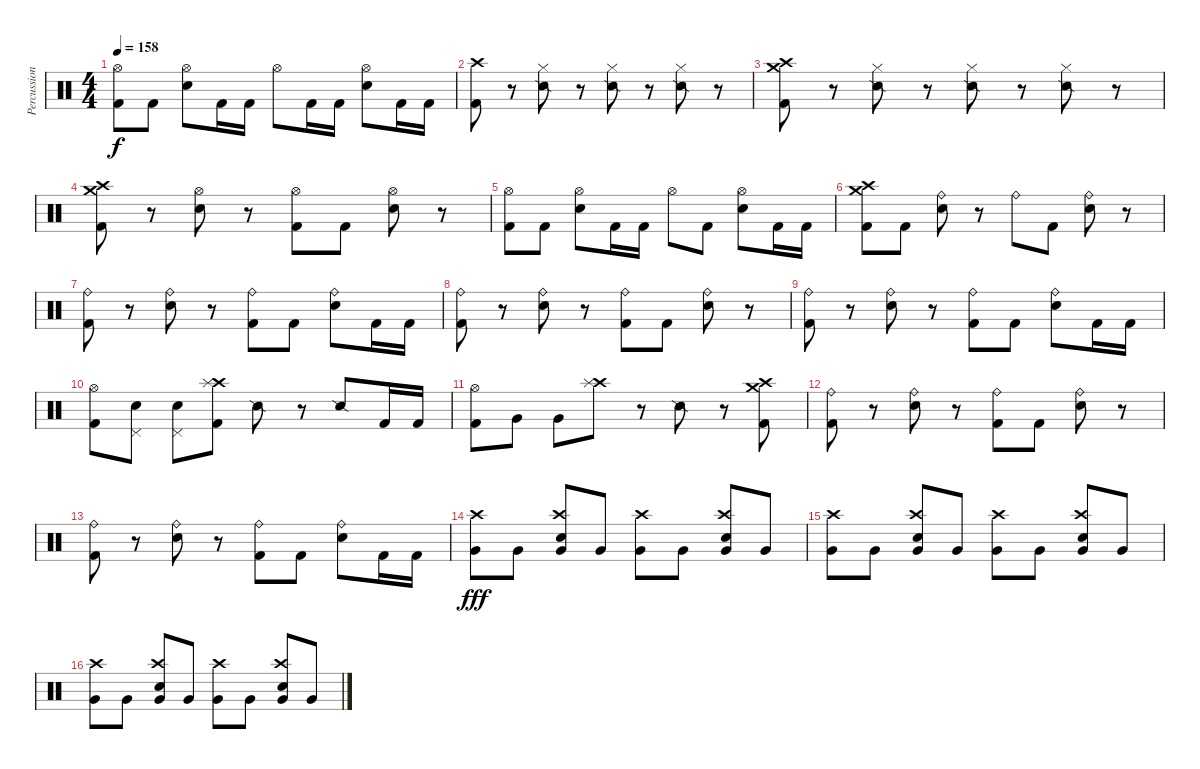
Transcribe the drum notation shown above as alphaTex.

\track ("Percussion" "Percussion") {instrument percussion}
\staff {score}
\articulation defaults
\ts (4 4)
\tempo 158
\clef neutral
\ks c
("Hi-Hat (open)" "Kick (hit) 2").8{dy f} "Kick (hit) 2".8 ("Hi-Hat (open)" "Snare (hit) 2").8 "Kick (hit) 2".16 "Kick (hit) 2".16 "Hi-Hat (open)".8 "Kick (hit) 2".16 "Kick (hit) 2".16 ("Hi-Hat (open)" "Snare (hit) 2").8 "Kick (hit) 2".16 "Kick (hit) 2".16 |
("Crash high (hit)" "Kick (hit) 2").8 r.8 ("Snare (side stick) 2" "Hi-Hat (closed)").8 r.8 ("Snare (side stick) 2" "Hi-Hat (closed)").8 r.8 ("Snare (side stick) 2" "Hi-Hat (closed)").8 r.8 |
("Crash high (hit)" "Crash medium (hit)" "Kick (hit) 2").8 r.8 ("Snare (side stick) 2" "Hi-Hat (closed)").8 r.8 ("Snare (side stick) 2" "Hi-Hat (closed)").8 r.8 ("Snare (side stick) 2" "Hi-Hat (closed)").8 r.8 |
("Crash high (hit)" "Crash medium (hit)" "Kick (hit) 2").8 r.8 ("Hi-Hat (open)" "Snare (hit) 2").8 r.8 ("Hi-Hat (open)" "Kick (hit) 2").8 "Kick (hit) 2".8 ("Hi-Hat (open)" "Snare (hit) 2").8 r.8 |
("Hi-Hat (open)" "Kick (hit) 2").8 "Kick (hit) 2".8 ("Hi-Hat (open)" "Snare (hit) 2").8 "Kick (hit) 2".16 "Kick (hit) 2".16 "Hi-Hat (open)".8 "Kick (hit) 2".8 ("Hi-Hat (open)" "Snare (hit) 2").8 "Kick (hit) 2".16 "Kick (hit) 2".16 |
("Crash high (hit)" "Crash medium (hit)" "Kick (hit) 2").8 "Kick (hit) 2".8 ("Ride (bell)" "Snare (hit) 2").8 r.8 "Ride (bell)".8 "Kick (hit) 2".8 ("Ride (bell)" "Snare (hit) 2").8 r.8 |
("Ride (bell)" "Kick (hit) 2").8 r.8 ("Ride (bell)" "Snare (hit) 2").8 r.8 ("Ride (bell)" "Kick (hit) 2").8 "Kick (hit) 2".8 ("Ride (bell)" "Snare (hit) 2").8 "Kick (hit) 2".16 "Kick (hit) 2".16 |
("Ride (bell)" "Kick (hit) 2").8 r.8 ("Ride (bell)" "Snare (hit) 2").8 r.8 ("Ride (bell)" "Kick (hit) 2").8 "Kick (hit) 2".8 ("Ride (bell)" "Snare (hit) 2").8 r.8 |
("Ride (bell)" "Kick (hit) 2").8 r.8 ("Ride (bell)" "Snare (hit) 2").8 r.8 ("Ride (bell)" "Kick (hit) 2").8 "Kick (hit) 2".8 ("Ride (bell)" "Snare (hit) 2").8 "Kick (hit) 2".16 "Kick (hit) 2".16 |
("Hi-Hat (open)" "Kick (hit) 2").8 ("Snare (hit) 2" "Pedal Hi-Hat (hit)").8 ("Snare (hit) 2" "Pedal Hi-Hat (hit)").8 ("Crash high (hit)" "Splash (hit)" "Kick (hit) 2").8 "Snare (side stick) 2".8 r.8 "Snare (side stick) 2".8 "Kick (hit) 2".16 "Kick (hit) 2".16 |
("Hi-Hat (open)" "Kick (hit) 2").8 "Very Low Tom (hit)".8 "Very Low Tom (hit)".8 ("Crash high (hit)" "Splash (hit)").8 r.8 "Snare (side stick) 2".8 r.8 ("Crash high (hit)" "Crash medium (hit)" "Kick (hit) 2").8 |
("Ride (bell)" "Kick (hit) 2").8 r.8 ("Ride (bell)" "Snare (hit) 2").8 r.8 ("Ride (bell)" "Kick (hit) 2").8 "Kick (hit) 2".8 ("Ride (bell)" "Snare (hit) 2").8 r.8 |
("Ride (bell)" "Kick (hit) 2").8 r.8 ("Ride (bell)" "Snare (hit) 2").8 r.8 ("Ride (bell)" "Kick (hit) 2").8 "Kick (hit) 2".8 ("Ride (bell)" "Snare (hit) 2").8 "Kick (hit) 2".16 "Kick (hit) 2".16 |
("Crash high (hit)" "Very Low Tom (hit)").8{dy fff} "Very Low Tom (hit)".8 ("Crash high (hit)" "Snare (hit) 2" "Very Low Tom (hit)").8 "Very Low Tom (hit)".8 ("Crash high (hit)" "Very Low Tom (hit)").8 "Very Low Tom (hit)".8 ("Crash high (hit)" "Snare (hit) 2" "Very Low Tom (hit)").8 "Very Low Tom (hit)".8 |
("Crash high (hit)" "Very Low Tom (hit)").8 "Very Low Tom (hit)".8 ("Crash high (hit)" "Snare (hit) 2" "Very Low Tom (hit)").8 "Very Low Tom (hit)".8 ("Crash high (hit)" "Very Low Tom (hit)").8 "Very Low Tom (hit)".8 ("Crash high (hit)" "Snare (hit) 2" "Very Low Tom (hit)").8 "Very Low Tom (hit)".8 |
("Crash high (hit)" "Very Low Tom (hit)").8 "Very Low Tom (hit)".8 ("Crash high (hit)" "Snare (hit) 2" "Very Low Tom (hit)").8 "Very Low Tom (hit)".8 ("Crash high (hit)" "Very Low Tom (hit)").8 "Very Low Tom (hit)".8 ("Crash high (hit)" "Snare (hit) 2" "Very Low Tom (hit)").8 "Very Low Tom (hit)".8
